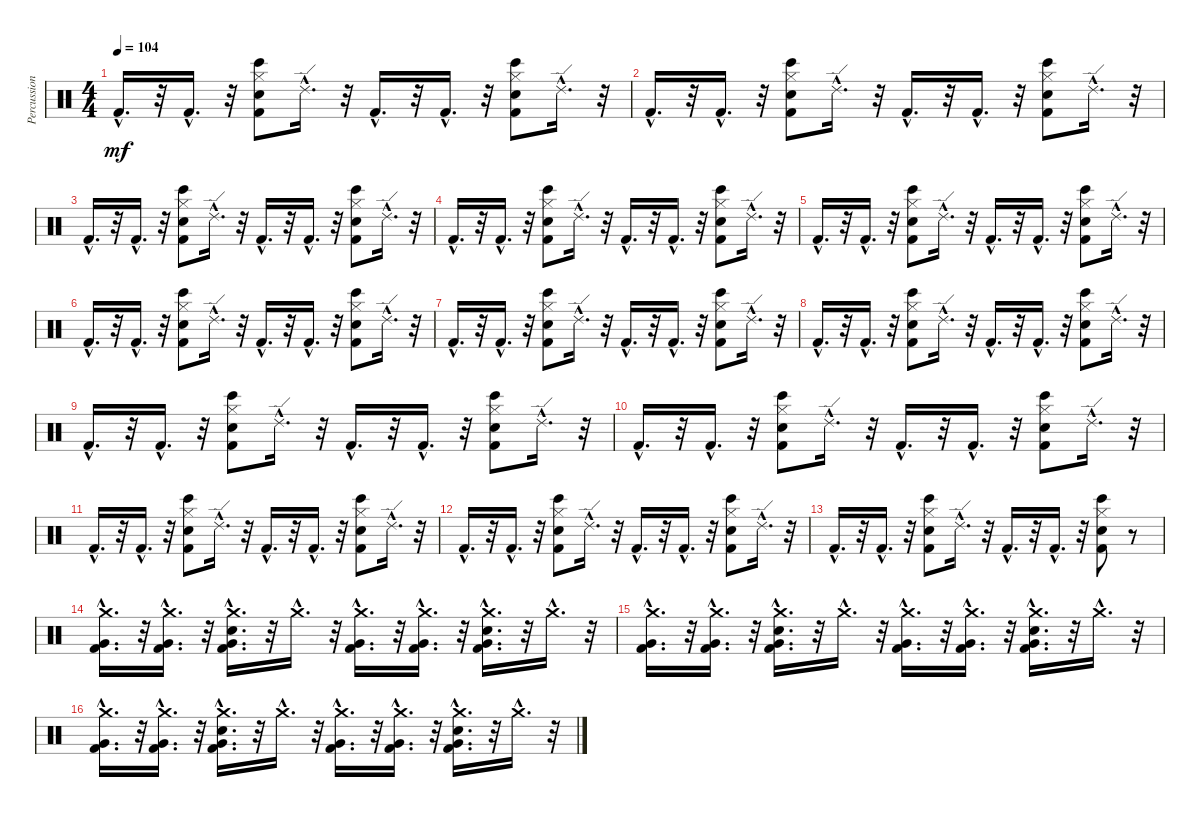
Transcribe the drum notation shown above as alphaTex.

\track ("Percussion" "Percussion") {instrument percussion}
\staff {score}
\articulation defaults
\ts (4 4)
\tempo 104
\clef neutral
\ks c "Kick (hit) 2"{hac}.16{d dy mf}
r.32 "Kick (hit) 2"{hac}.16{d} r.32 ("Kick (hit) 2" "Hand Clap (hit)" "Hi-Hat (closed)" "Bongo High (hit)").8 "Ride (edge) 2"{hac}.16{d} r.32 "Kick (hit) 2"{hac}.16{d} r.32 "Kick (hit) 2"{hac}.16{d} r.32 ("Kick (hit) 2" "Hand Clap (hit)" "Hi-Hat (closed)" "Bongo High (hit)").8 "Ride (edge) 2"{hac}.16{d} r.32 |
"Kick (hit) 2"{hac}.16{d} r.32 "Kick (hit) 2"{hac}.16{d} r.32 ("Kick (hit) 2" "Hand Clap (hit)" "Hi-Hat (closed)" "Bongo High (hit)").8 "Ride (edge) 2"{hac}.16{d} r.32 "Kick (hit) 2"{hac}.16{d} r.32 "Kick (hit) 2"{hac}.16{d} r.32 ("Kick (hit) 2" "Hand Clap (hit)" "Hi-Hat (closed)" "Bongo High (hit)").8 "Ride (edge) 2"{hac}.16{d} r.32 |
"Kick (hit) 2"{hac}.16{d} r.32 "Kick (hit) 2"{hac}.16{d} r.32 ("Kick (hit) 2" "Hand Clap (hit)" "Hi-Hat (closed)" "Bongo High (hit)").8 "Ride (edge) 2"{hac}.16{d} r.32 "Kick (hit) 2"{hac}.16{d} r.32 "Kick (hit) 2"{hac}.16{d} r.32 ("Bongo High (hit)" "Hi-Hat (closed)" "Hand Clap (hit)" "Kick (hit) 2").8 "Ride (edge) 2"{hac}.16{d} r.32 |
"Kick (hit) 2"{hac}.16{d} r.32 "Kick (hit) 2"{hac}.16{d} r.32 ("Kick (hit) 2" "Hand Clap (hit)" "Hi-Hat (closed)" "Bongo High (hit)").8 "Ride (edge) 2"{hac}.16{d} r.32 "Kick (hit) 2"{hac}.16{d} r.32 "Kick (hit) 2"{hac}.16{d} r.32 ("Bongo High (hit)" "Hi-Hat (closed)" "Hand Clap (hit)" "Kick (hit) 2").8 "Ride (edge) 2"{hac}.16{d} r.32 |
"Kick (hit) 2"{hac}.16{d} r.32 "Kick (hit) 2"{hac}.16{d} r.32 ("Kick (hit) 2" "Hand Clap (hit)" "Hi-Hat (closed)" "Bongo High (hit)").8 "Ride (edge) 2"{hac}.16{d} r.32 "Kick (hit) 2"{hac}.16{d} r.32 "Kick (hit) 2"{hac}.16{d} r.32 ("Bongo High (hit)" "Hi-Hat (closed)" "Hand Clap (hit)" "Kick (hit) 2").8 "Ride (edge) 2"{hac}.16{d} r.32 |
"Kick (hit) 2"{hac}.16{d} r.32 "Kick (hit) 2"{hac}.16{d} r.32 ("Kick (hit) 2" "Hand Clap (hit)" "Hi-Hat (closed)" "Bongo High (hit)").8 "Ride (edge) 2"{hac}.16{d} r.32 "Kick (hit) 2"{hac}.16{d} r.32 "Kick (hit) 2"{hac}.16{d} r.32 ("Hi-Hat (closed)" "Bongo High (hit)" "Hand Clap (hit)" "Kick (hit) 2").8 "Ride (edge) 2"{hac}.16{d} r.32 |
"Kick (hit) 2"{hac}.16{d} r.32 "Kick (hit) 2"{hac}.16{d} r.32 ("Kick (hit) 2" "Hand Clap (hit)" "Hi-Hat (closed)" "Bongo High (hit)").8 "Ride (edge) 2"{hac}.16{d} r.32 "Kick (hit) 2"{hac}.16{d} r.32 "Kick (hit) 2"{hac}.16{d} r.32 ("Bongo High (hit)" "Hi-Hat (closed)" "Hand Clap (hit)" "Kick (hit) 2").8 "Ride (edge) 2"{hac}.16{d} r.32 |
"Kick (hit) 2"{hac}.16{d} r.32 "Kick (hit) 2"{hac}.16{d} r.32 ("Hand Clap (hit)" "Kick (hit) 2" "Hi-Hat (closed)" "Bongo High (hit)").8 "Ride (edge) 2"{hac}.16{d} r.32 "Kick (hit) 2"{hac}.16{d} r.32 "Kick (hit) 2"{hac}.16{d} r.32 ("Hi-Hat (closed)" "Bongo High (hit)" "Hand Clap (hit)" "Kick (hit) 2").8 "Ride (edge) 2"{hac}.16{d} r.32 |
"Kick (hit) 2"{hac}.16{d} r.32 "Kick (hit) 2"{hac}.16{d} r.32 ("Kick (hit) 2" "Hand Clap (hit)" "Hi-Hat (closed)" "Bongo High (hit)").8 "Ride (edge) 2"{hac}.16{d} r.32 "Kick (hit) 2"{hac}.16{d} r.32 "Kick (hit) 2"{hac}.16{d} r.32 ("Bongo High (hit)" "Hi-Hat (closed)" "Hand Clap (hit)" "Kick (hit) 2").8 "Ride (edge) 2"{hac}.16{d} r.32 |
"Kick (hit) 2"{hac}.16{d} r.32 "Kick (hit) 2"{hac}.16{d} r.32 ("Kick (hit) 2" "Hand Clap (hit)" "Hi-Hat (closed)" "Bongo High (hit)").8 "Ride (edge) 2"{hac}.16{d} r.32 "Kick (hit) 2"{hac}.16{d} r.32 "Kick (hit) 2"{hac}.16{d} r.32 ("Hi-Hat (closed)" "Hand Clap (hit)" "Kick (hit) 2" "Bongo High (hit)").8 "Ride (edge) 2"{hac}.16{d} r.32 |
"Kick (hit) 2"{hac}.16{d} r.32 "Kick (hit) 2"{hac}.16{d} r.32 ("Hand Clap (hit)" "Kick (hit) 2" "Hi-Hat (closed)" "Bongo High (hit)").8 "Ride (edge) 2"{hac}.16{d} r.32 "Kick (hit) 2"{hac}.16{d} r.32 "Kick (hit) 2"{hac}.16{d} r.32 ("Bongo High (hit)" "Hand Clap (hit)" "Kick (hit) 2" "Hi-Hat (closed)").8 "Ride (edge) 2"{hac}.16{d} r.32 |
"Kick (hit) 2"{hac}.16{d} r.32 "Kick (hit) 2"{hac}.16{d} r.32 ("Hand Clap (hit)" "Kick (hit) 2" "Hi-Hat (closed)" "Bongo High (hit)").8 "Ride (edge) 2"{hac}.16{d} r.32 "Kick (hit) 2"{hac}.16{d} r.32 "Kick (hit) 2"{hac}.16{d} r.32 ("Bongo High (hit)" "Hand Clap (hit)" "Kick (hit) 2" "Hi-Hat (closed)").8 "Ride (edge) 2"{hac}.16{d} r.32 |
"Kick (hit) 2"{hac}.16{d} r.32 "Kick (hit) 2"{hac}.16{d} r.32 ("Kick (hit) 2" "Hand Clap (hit)" "Hi-Hat (closed)" "Bongo High (hit)").8 "Ride (edge) 2"{hac}.16{d} r.32 "Kick (hit) 2"{hac}.16{d} r.32 "Kick (hit) 2"{hac}.16{d} r.32 ("Bongo High (hit)" "Hi-Hat (closed)" "Hand Clap (hit)" "Kick (hit) 2").8 r.8 |
("Kick (hit) 2"{hac} "Very Low Tom (hit)"{hac} "Crash medium (hit)"{hac}).16{d} r.32 ("Kick (hit) 2"{hac} "Very Low Tom (hit)"{hac} "Crash medium (hit)"{hac}).16{d} r.32 ("Electric Snare (hit)"{hac} "Kick (hit) 2"{hac} "Crash medium (hit)"{hac} "Very Low Tom (hit)"{hac}).16{d} r.32 "Crash medium (hit)"{hac}.16{d} r.32 ("Kick (hit) 2"{hac} "Very Low Tom (hit)"{hac} "Crash medium (hit)"{hac}).16{d} r.32 ("Kick (hit) 2"{hac} "Very Low Tom (hit)"{hac} "Crash medium (hit)"{hac}).16{d} r.32 ("Electric Snare (hit)"{hac} "Kick (hit) 2"{hac} "Crash medium (hit)"{hac} "Very Low Tom (hit)"{hac}).16{d} r.32 "Crash medium (hit)"{hac}.16{d} r.32 |
("Kick (hit) 2"{hac} "Very Low Tom (hit)"{hac} "Crash medium (hit)"{hac}).16{d} r.32 ("Kick (hit) 2"{hac} "Very Low Tom (hit)"{hac} "Crash medium (hit)"{hac}).16{d} r.32 ("Electric Snare (hit)"{hac} "Kick (hit) 2"{hac} "Crash medium (hit)"{hac} "Very Low Tom (hit)"{hac}).16{d} r.32 "Crash medium (hit)"{hac}.16{d} r.32 ("Kick (hit) 2"{hac} "Very Low Tom (hit)"{hac} "Crash medium (hit)"{hac}).16{d} r.32 ("Kick (hit) 2"{hac} "Very Low Tom (hit)"{hac} "Crash medium (hit)"{hac}).16{d} r.32 ("Electric Snare (hit)"{hac} "Kick (hit) 2"{hac} "Crash medium (hit)"{hac} "Very Low Tom (hit)"{hac}).16{d} r.32 "Crash medium (hit)"{hac}.16{d} r.32 |
("Kick (hit) 2"{hac} "Very Low Tom (hit)"{hac} "Crash medium (hit)"{hac}).16{d} r.32 ("Kick (hit) 2"{hac} "Very Low Tom (hit)"{hac} "Crash medium (hit)"{hac}).16{d} r.32 ("Electric Snare (hit)"{hac} "Kick (hit) 2"{hac} "Crash medium (hit)"{hac} "Very Low Tom (hit)"{hac}).16{d} r.32 "Crash medium (hit)"{hac}.16{d} r.32 ("Kick (hit) 2"{hac} "Very Low Tom (hit)"{hac} "Crash medium (hit)"{hac}).16{d} r.32 ("Kick (hit) 2"{hac} "Very Low Tom (hit)"{hac} "Crash medium (hit)"{hac}).16{d} r.32 ("Electric Snare (hit)"{hac} "Kick (hit) 2"{hac} "Crash medium (hit)"{hac} "Very Low Tom (hit)"{hac}).16{d} r.32 "Crash medium (hit)"{hac}.16{d} r.32
